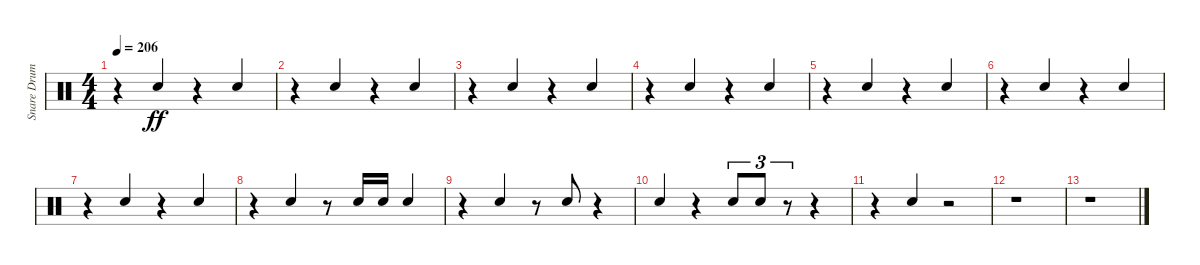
\track ("Snare Drum" "Snare Drum") {instrument percussion}
\staff {score}
\articulation defaults
\ts (4 4)
\tempo 206
\clef neutral
\ks c
r.4{dy ff} "Electric Snare (hit)".4{beam Up} r.4 "Electric Snare (hit)".4{beam Up} |
r.4 "Electric Snare (hit)".4{beam Up} r.4 "Electric Snare (hit)".4{beam Up} |
r.4 "Electric Snare (hit)".4{beam Up} r.4 "Electric Snare (hit)".4{beam Up} |
r.4 "Electric Snare (hit)".4{beam Up} r.4 "Electric Snare (hit)".4{beam Up} |
r.4 "Electric Snare (hit)".4{beam Up} r.4 "Electric Snare (hit)".4{beam Up} |
r.4 "Electric Snare (hit)".4{beam Up} r.4 "Electric Snare (hit)".4{beam Up} |
r.4 "Electric Snare (hit)".4{beam Up} r.4 "Electric Snare (hit)".4{beam Up} |
r.4 "Electric Snare (hit)".4{beam Up} r.8 "Electric Snare (hit)".16{beam Up} "Electric Snare (hit)".16{beam Up} "Electric Snare (hit)".4{beam Up} |
r.4 "Electric Snare (hit)".4{beam Up} r.8 "Electric Snare (hit)".8{beam Up} r.4 |
"Electric Snare (hit)".4{beam Up} r.4 "Electric Snare (hit)".8{tu (3 2) beam Up} "Electric Snare (hit)".8{tu (3 2) beam Up} r.8{tu (3 2) beam Up} r.4 |
r.4 "Electric Snare (hit)".4{beam Up} r.2 |
r.1 |
r.1
